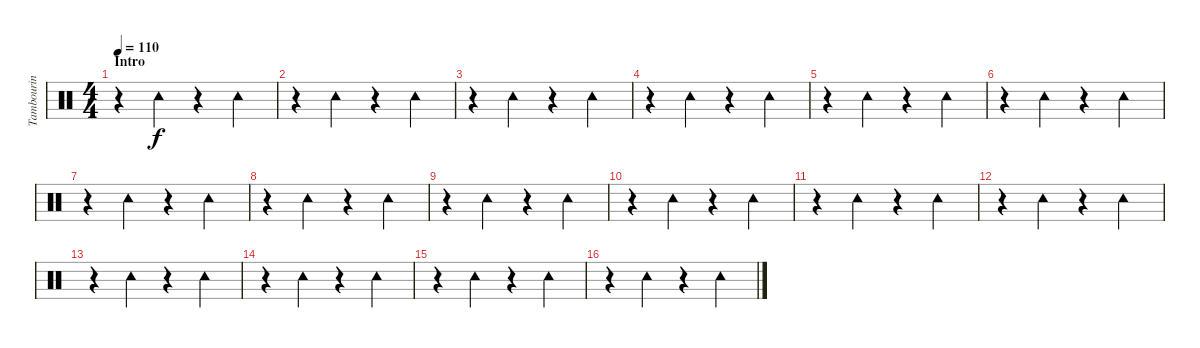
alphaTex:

\track ("Tambourin" "Tambourin") {instrument percussion}
\staff {score}
\articulation defaults
\ts (4 4)
\section ("" "Intro")
\tempo 110
\clef neutral
\ks c
r.4{dy f} "Tambourine (hit)".4 r.4 "Tambourine (hit)".4 |
r.4 "Tambourine (hit)".4 r.4 "Tambourine (hit)".4 |
r.4 "Tambourine (hit)".4 r.4 "Tambourine (hit)".4 |
r.4 "Tambourine (hit)".4 r.4 "Tambourine (hit)".4 |
r.4 "Tambourine (hit)".4 r.4 "Tambourine (hit)".4 |
r.4 "Tambourine (hit)".4 r.4 "Tambourine (hit)".4 |
r.4 "Tambourine (hit)".4 r.4 "Tambourine (hit)".4 |
r.4 "Tambourine (hit)".4 r.4 "Tambourine (hit)".4 |
r.4 "Tambourine (hit)".4 r.4 "Tambourine (hit)".4 |
r.4 "Tambourine (hit)".4 r.4 "Tambourine (hit)".4 |
r.4 "Tambourine (hit)".4 r.4 "Tambourine (hit)".4 |
r.4 "Tambourine (hit)".4 r.4 "Tambourine (hit)".4 |
r.4 "Tambourine (hit)".4 r.4 "Tambourine (hit)".4 |
r.4 "Tambourine (hit)".4 r.4 "Tambourine (hit)".4 |
r.4 "Tambourine (hit)".4 r.4 "Tambourine (hit)".4 |
r.4 "Tambourine (hit)".4 r.4 "Tambourine (hit)".4
